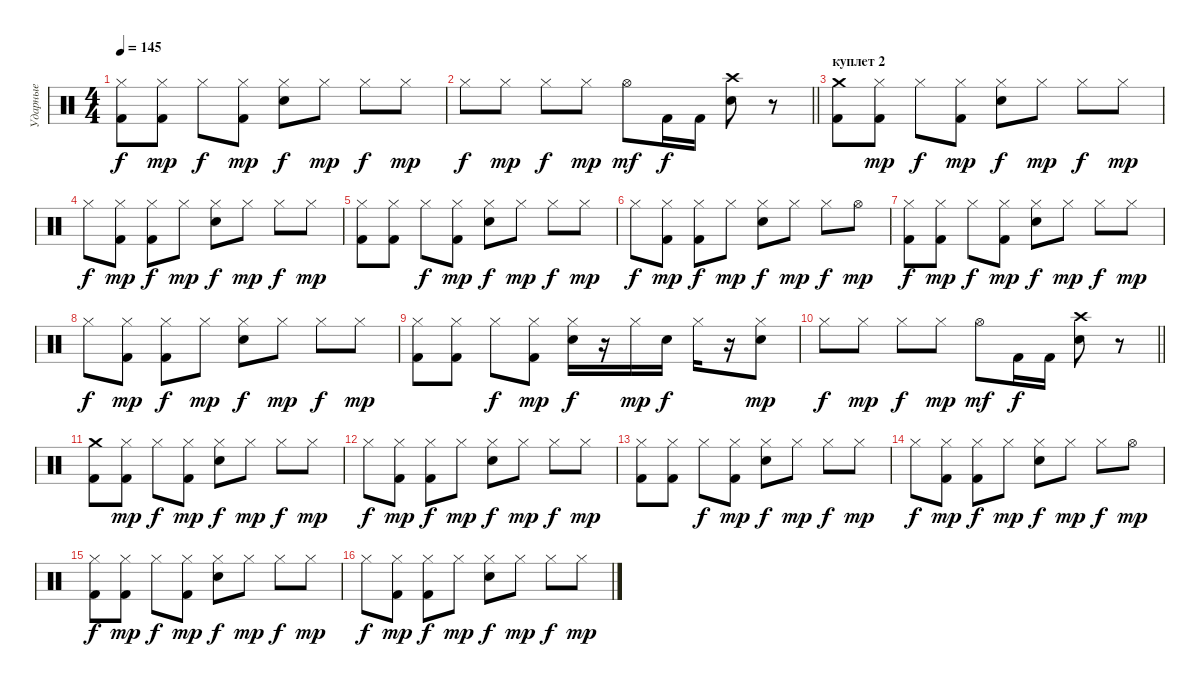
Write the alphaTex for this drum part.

\track ("Ударные" "Ударные") {instrument percussion}
\staff {score}
\articulation defaults
\ts (4 4)
\tempo 145
\clef neutral
\ks c
("Hi-Hat (closed)" "Kick (hit) 2").8{dy f} ("Hi-Hat (closed)" "Kick (hit) 2").8{dy mp} "Hi-Hat (closed)".8{dy f} ("Hi-Hat (closed)" "Kick (hit) 2").8{dy mp} ("Hi-Hat (closed)" "Electric Snare (hit)").8{dy f} "Hi-Hat (closed)".8{dy mp} "Hi-Hat (closed)".8{dy f} "Hi-Hat (closed)".8{dy mp} |
\barLineRight lightlight "Hi-Hat (closed)".8{dy f} "Hi-Hat (closed)".8{dy mp} "Hi-Hat (closed)".8{dy f} "Hi-Hat (closed)".8{dy mp} "Hi-Hat (open)".8{dy mf} "Kick (hit) 2".16{dy f} "Kick (hit) 2".16
("Crash high (hit)" "Electric Snare (hit)").8 r.8 |
\section ("" "куплет 2")
("Crash medium (hit)" "Kick (hit) 2").8 ("Hi-Hat (closed)" "Kick (hit) 2").8{dy mp} "Hi-Hat (closed)".8{dy f} ("Hi-Hat (closed)" "Kick (hit) 2").8{dy mp} ("Hi-Hat (closed)" "Electric Snare (hit)").8{dy f} "Hi-Hat (closed)".8{dy mp} "Hi-Hat (closed)".8{dy f} "Hi-Hat (closed)".8{dy mp} |
"Hi-Hat (closed)".8{dy f} ("Hi-Hat (closed)" "Kick (hit) 2").8{dy mp} ("Hi-Hat (closed)" "Kick (hit) 2").8{dy f} "Hi-Hat (closed)".8{dy mp} ("Hi-Hat (closed)" "Electric Snare (hit)").8{dy f} "Hi-Hat (closed)".8{dy mp} "Hi-Hat (closed)".8{dy f} "Hi-Hat (closed)".8{dy mp} |
("Hi-Hat (closed)" "Kick (hit) 2").8 ("Hi-Hat (closed)" "Kick (hit) 2").8 "Hi-Hat (closed)".8{dy f} ("Hi-Hat (closed)" "Kick (hit) 2").8{dy mp} ("Hi-Hat (closed)" "Electric Snare (hit)").8{dy f} "Hi-Hat (closed)".8{dy mp} "Hi-Hat (closed)".8{dy f} "Hi-Hat (closed)".8{dy mp} |
"Hi-Hat (closed)".8{dy f} ("Hi-Hat (closed)" "Kick (hit) 2").8{dy mp} ("Hi-Hat (closed)" "Kick (hit) 2").8{dy f} "Hi-Hat (closed)".8{dy mp} ("Hi-Hat (closed)" "Electric Snare (hit)").8{dy f} "Hi-Hat (closed)".8{dy mp} "Hi-Hat (closed)".8{dy f} "Hi-Hat (open)".8{dy mp} |
("Hi-Hat (closed)" "Kick (hit) 2").8{dy f} ("Hi-Hat (closed)" "Kick (hit) 2").8{dy mp} "Hi-Hat (closed)".8{dy f} ("Hi-Hat (closed)" "Kick (hit) 2").8{dy mp} ("Hi-Hat (closed)" "Electric Snare (hit)").8{dy f} "Hi-Hat (closed)".8{dy mp} "Hi-Hat (closed)".8{dy f} "Hi-Hat (closed)".8{dy mp} |
"Hi-Hat (closed)".8{dy f} ("Hi-Hat (closed)" "Kick (hit) 2").8{dy mp} ("Hi-Hat (closed)" "Kick (hit) 2").8{dy f} "Hi-Hat (closed)".8{dy mp} ("Hi-Hat (closed)" "Electric Snare (hit)").8{dy f} "Hi-Hat (closed)".8{dy mp} "Hi-Hat (closed)".8{dy f} "Hi-Hat (closed)".8{dy mp} |
("Hi-Hat (closed)" "Kick (hit) 2").8 ("Hi-Hat (closed)" "Kick (hit) 2").8 "Hi-Hat (closed)".8{dy f} ("Hi-Hat (closed)" "Kick (hit) 2").8{dy mp} ("Hi-Hat (closed)" "Electric Snare (hit)").16{dy f} r.16 "Hi-Hat (closed)".16{dy mp} "Electric Snare (hit)".16{dy f} "Hi-Hat (closed)".16 r.16 ("Hi-Hat (closed)" "Electric Snare (hit)").8{dy mp} |
\barLineRight lightlight "Hi-Hat (closed)".8{dy f} "Hi-Hat (closed)".8{dy mp} "Hi-Hat (closed)".8{dy f} "Hi-Hat (closed)".8{dy mp} "Hi-Hat (open)".8{dy mf} "Kick (hit) 2".16{dy f} "Kick (hit) 2".16
("Crash high (hit)" "Electric Snare (hit)").8 r.8 |
("Crash medium (hit)" "Kick (hit) 2").8 ("Hi-Hat (closed)" "Kick (hit) 2").8{dy mp} "Hi-Hat (closed)".8{dy f} ("Hi-Hat (closed)" "Kick (hit) 2").8{dy mp} ("Hi-Hat (closed)" "Electric Snare (hit)").8{dy f} "Hi-Hat (closed)".8{dy mp} "Hi-Hat (closed)".8{dy f} "Hi-Hat (closed)".8{dy mp} |
"Hi-Hat (closed)".8{dy f} ("Hi-Hat (closed)" "Kick (hit) 2").8{dy mp} ("Hi-Hat (closed)" "Kick (hit) 2").8{dy f} "Hi-Hat (closed)".8{dy mp} ("Hi-Hat (closed)" "Electric Snare (hit)").8{dy f} "Hi-Hat (closed)".8{dy mp} "Hi-Hat (closed)".8{dy f} "Hi-Hat (closed)".8{dy mp} |
("Hi-Hat (closed)" "Kick (hit) 2").8 ("Hi-Hat (closed)" "Kick (hit) 2").8 "Hi-Hat (closed)".8{dy f} ("Hi-Hat (closed)" "Kick (hit) 2").8{dy mp} ("Hi-Hat (closed)" "Electric Snare (hit)").8{dy f} "Hi-Hat (closed)".8{dy mp} "Hi-Hat (closed)".8{dy f} "Hi-Hat (closed)".8{dy mp} |
"Hi-Hat (closed)".8{dy f} ("Hi-Hat (closed)" "Kick (hit) 2").8{dy mp} ("Hi-Hat (closed)" "Kick (hit) 2").8{dy f} "Hi-Hat (closed)".8{dy mp} ("Hi-Hat (closed)" "Electric Snare (hit)").8{dy f} "Hi-Hat (closed)".8{dy mp} "Hi-Hat (closed)".8{dy f} "Hi-Hat (open)".8{dy mp} |
("Hi-Hat (closed)" "Kick (hit) 2").8{dy f} ("Hi-Hat (closed)" "Kick (hit) 2").8{dy mp} "Hi-Hat (closed)".8{dy f} ("Hi-Hat (closed)" "Kick (hit) 2").8{dy mp} ("Hi-Hat (closed)" "Electric Snare (hit)").8{dy f} "Hi-Hat (closed)".8{dy mp} "Hi-Hat (closed)".8{dy f} "Hi-Hat (closed)".8{dy mp} |
"Hi-Hat (closed)".8{dy f} ("Hi-Hat (closed)" "Kick (hit) 2").8{dy mp} ("Hi-Hat (closed)" "Kick (hit) 2").8{dy f} "Hi-Hat (closed)".8{dy mp} ("Hi-Hat (closed)" "Electric Snare (hit)").8{dy f} "Hi-Hat (closed)".8{dy mp} "Hi-Hat (closed)".8{dy f} "Hi-Hat (closed)".8{dy mp}
